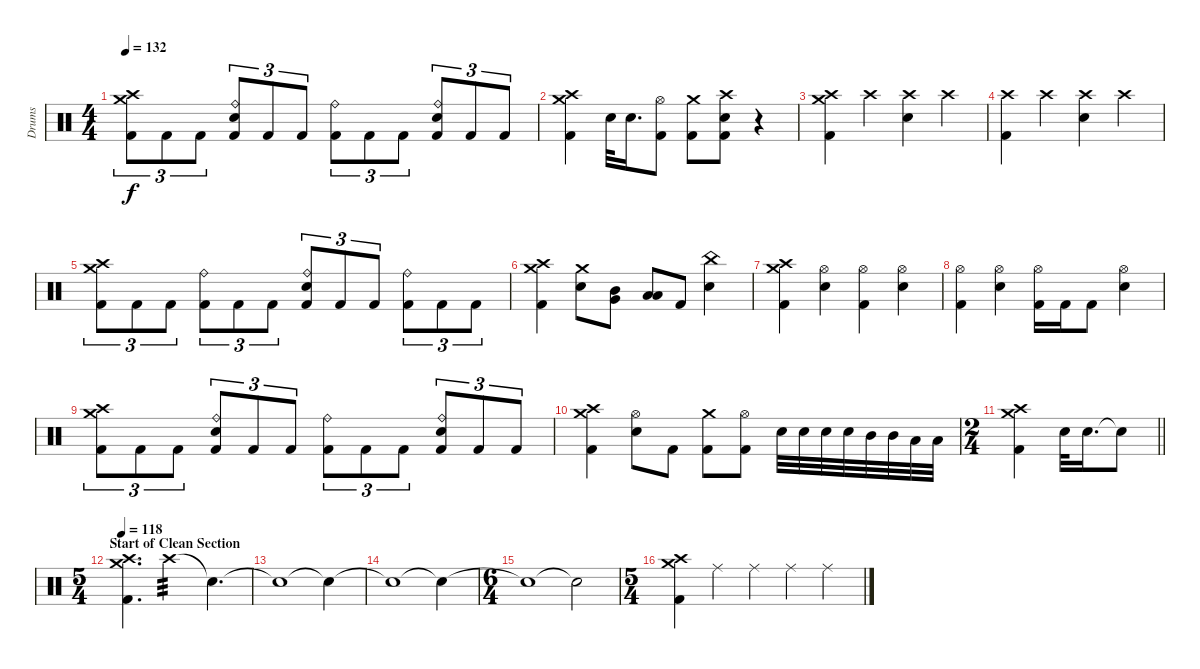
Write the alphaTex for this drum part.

\track ("Drums" "Drums") {instrument percussion}
\staff {score}
\articulation defaults
\ts (4 4)
\tempo 132
\clef neutral
\ks c
("Crash medium (hit)" "Crash high (hit)" "Kick (hit) 2").8{tu (3 2) dy f} "Kick (hit) 2".8{tu (3 2)} "Kick (hit) 2".8{tu (3 2)} ("Ride (bell)" "Electric Snare (hit)" "Kick (hit) 2").8{tu (3 2)} "Kick (hit) 2".8{tu (3 2)} "Kick (hit) 2".8{tu (3 2)} ("Ride (bell)" "Kick (hit) 2").8{tu (3 2)} "Kick (hit) 2".8{tu (3 2)} "Kick (hit) 2".8{tu (3 2)} ("Ride (bell)" "Electric Snare (hit)" "Kick (hit) 2").8{tu (3 2)} "Kick (hit) 2".8{tu (3 2)} "Kick (hit) 2".8{tu (3 2)} |
("Crash medium (hit)" "Crash high (hit)" "Kick (hit) 2").4 "Electric Snare (hit)".32 "Electric Snare (hit)".16{d} ("Hi-Hat (open)" "Kick (hit) 2").8 ("Crash medium (hit)" "Kick (hit) 2").8 ("Crash high (hit)" "Electric Snare (hit)" "Kick (hit) 2").8 r.4{volume 0} |
("Crash medium (hit)" "Crash high (hit)" "Kick (hit) 2").4{volume 13} "Crash high (hit)".4 ("Crash high (hit)" "Electric Snare (hit)").4 "Crash high (hit)".4 |
("Crash high (hit)" "Kick (hit) 2").4 "Crash high (hit)".4 ("Crash high (hit)" "Electric Snare (hit)").4 "Crash high (hit)".4 |
("Crash medium (hit)" "Crash high (hit)" "Kick (hit) 2").8{tu (3 2)} "Kick (hit) 2".8{tu (3 2)} "Kick (hit) 2".8{tu (3 2)} ("Ride (bell)" "Kick (hit) 2").8{tu (3 2)} "Kick (hit) 2".8{tu (3 2)} "Kick (hit) 2".8{tu (3 2)} ("Ride (bell)" "Electric Snare (hit)" "Kick (hit) 2").8{tu (3 2)} "Kick (hit) 2".8{tu (3 2)} "Kick (hit) 2".8{tu (3 2)} ("Ride (bell)" "Kick (hit) 2").8{tu (3 2)} "Kick (hit) 2".8{tu (3 2)} "Kick (hit) 2".8{tu (3 2)} |
("Crash medium (hit)" "Crash high (hit)" "Kick (hit) 2").4 ("Crash medium (hit)" "Electric Snare (hit)").8 ("Mid Tom (hit)" "Very Low Tom (hit)").8 ("Low Tom (hit)" "Low Floor Tom (hit)").8 "Kick (hit) 2".8 ("China (hit)" "Electric Snare (hit)").4 |
("Crash medium (hit)" "Crash high (hit)" "Kick (hit) 2").4 ("Hi-Hat (open)" "Electric Snare (hit)").4 ("Hi-Hat (open)" "Kick (hit) 2").4 ("Hi-Hat (open)" "Electric Snare (hit)").4 |
("Hi-Hat (open)" "Kick (hit) 2").4 ("Hi-Hat (open)" "Electric Snare (hit)").4 ("Hi-Hat (open)" "Kick (hit) 2").16 "Kick (hit) 2".16 "Kick (hit) 2".8 ("Hi-Hat (open)" "Electric Snare (hit)").4 |
("Crash medium (hit)" "Crash high (hit)" "Kick (hit) 2").8{tu (3 2)} "Kick (hit) 2".8{tu (3 2)} "Kick (hit) 2".8{tu (3 2)} ("Ride (bell)" "Electric Snare (hit)" "Kick (hit) 2").8{tu (3 2)} "Kick (hit) 2".8{tu (3 2)} "Kick (hit) 2".8{tu (3 2)} ("Ride (bell)" "Kick (hit) 2").8{tu (3 2)} "Kick (hit) 2".8{tu (3 2)} "Kick (hit) 2".8{tu (3 2)} ("Ride (bell)" "Electric Snare (hit)" "Kick (hit) 2").8{tu (3 2)} "Kick (hit) 2".8{tu (3 2)} "Kick (hit) 2".8{tu (3 2)} |
("Crash medium (hit)" "Crash high (hit)" "Kick (hit) 2").4 ("Hi-Hat (open)" "Electric Snare (hit)").8 "Kick (hit) 2".8 ("Crash medium (hit)" "Kick (hit) 2").8 ("Hi-Hat (open)" "Kick (hit) 2").8 "Electric Snare (hit)".32 "Electric Snare (hit)".32 "Electric Snare (hit)".32 "Electric Snare (hit)".32 "Mid Tom (hit)".32 "Mid Tom (hit)".32 "Low Tom (hit)".32 "Low Tom (hit)".32 |
\ts (2 4)
\barLineRight lightlight
("Crash medium (hit)" "Crash high (hit)" "Kick (hit) 2").4 "Electric Snare (hit)".32 "Electric Snare (hit)".16{d} "Snare (hit)"{t}.8 |
\ts (5 4)
\section ("" "Start of Clean Section")
\tempo 118
("Crash medium (hit)" "Crash high (hit)" "Kick (hit) 2").4{d} "Crash high (hit)".2{tp 3 volume 6} "Snare (hit)"{t}.4{d} |
"Snare (hit)"{t}.1{volume 7} "Snare (hit)"{t}.4 |
"Snare (hit)"{t}.1{volume 8} "Snare (hit)"{t}.4{volume 6} |
\ts (6 4)
"Snare (hit)"{t}.1{volume 7} "Snare (hit)"{t}.2{volume 9} |
\ts (5 4)
("Crash medium (hit)" "Crash high (hit)" "Kick (hit) 2").4{volume 13} "Ride (middle)".4 "Ride (middle)".4 "Ride (middle)".4 "Ride (middle)".4
